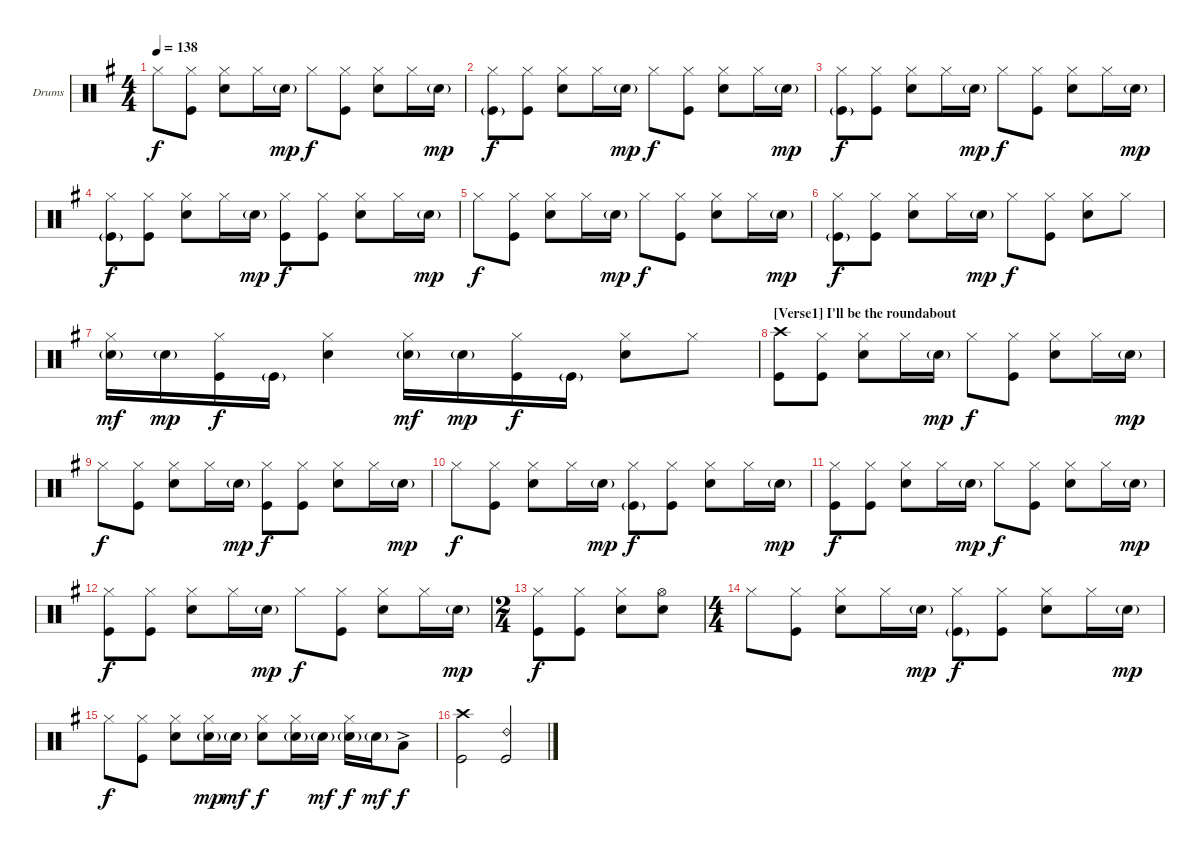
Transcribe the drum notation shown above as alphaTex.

\bracketExtendMode groupsimilarinstruments
\firstSystemTrackNameOrientation horizontal
\otherSystemsTrackNameOrientation horizontal
\track ("Drumkit" "Drums") {instrument percussion}
\staff {score}
\articulation defaults
\ts (4 4)
\tempo 138
\clef neutral
\ks eminor "Hi-Hat (closed)".8{dy f}
("Hi-Hat (closed)" "Kick (hit)").8 ("Snare (hit) 2" "Hi-Hat (closed)").8 "Hi-Hat (closed)".16 "Snare (hit) 2"{g}.16{dy mp} "Hi-Hat (closed)".8{dy f} ("Kick (hit)" "Hi-Hat (closed)").8 ("Snare (hit) 2" "Hi-Hat (closed)").8 "Hi-Hat (closed)".16 "Snare (hit) 2"{g}.16{dy mp} |
("Hi-Hat (closed)" "Kick (hit)"{g}).8{dy f} ("Hi-Hat (closed)" "Kick (hit)").8 ("Snare (hit) 2" "Hi-Hat (closed)").8 "Hi-Hat (closed)".16 "Snare (hit) 2"{g}.16{dy mp} "Hi-Hat (closed)".8{dy f} ("Kick (hit)" "Hi-Hat (closed)").8 ("Snare (hit) 2" "Hi-Hat (closed)").8 "Hi-Hat (closed)".16 "Snare (hit) 2"{g}.16{dy mp} |
("Hi-Hat (closed)" "Kick (hit)"{g}).8{dy f} ("Hi-Hat (closed)" "Kick (hit)").8 ("Snare (hit) 2" "Hi-Hat (closed)").8 "Hi-Hat (closed)".16 "Snare (hit) 2"{g}.16{dy mp} "Hi-Hat (closed)".8{dy f} ("Kick (hit)" "Hi-Hat (closed)").8 ("Snare (hit) 2" "Hi-Hat (closed)").8 "Hi-Hat (closed)".16 "Snare (hit) 2"{g}.16{dy mp} |
("Hi-Hat (closed)" "Kick (hit)"{g}).8{dy f} ("Hi-Hat (closed)" "Kick (hit)").8 ("Snare (hit) 2" "Hi-Hat (closed)").8 "Hi-Hat (closed)".16 "Snare (hit) 2"{g}.16{dy mp} ("Hi-Hat (closed)" "Kick (hit)").8{dy f} ("Kick (hit)" "Hi-Hat (closed)").8 ("Snare (hit) 2" "Hi-Hat (closed)").8 "Hi-Hat (closed)".16 "Snare (hit) 2"{g}.16{dy mp} |
"Hi-Hat (closed)".8{dy f} ("Hi-Hat (closed)" "Kick (hit)").8 ("Snare (hit) 2" "Hi-Hat (closed)").8 "Hi-Hat (closed)".16 "Snare (hit) 2"{g}.16{dy mp} "Hi-Hat (closed)".8{dy f} ("Kick (hit)" "Hi-Hat (closed)").8 ("Snare (hit) 2" "Hi-Hat (closed)").8 "Hi-Hat (closed)".16 "Snare (hit) 2"{g}.16{dy mp} |
("Hi-Hat (closed)" "Kick (hit)"{g}).8{dy f} ("Hi-Hat (closed)" "Kick (hit)").8 ("Snare (hit) 2" "Hi-Hat (closed)").8 "Hi-Hat (closed)".16 "Snare (hit) 2"{g}.16{dy mp} "Hi-Hat (closed)".8{dy f} ("Kick (hit)" "Hi-Hat (closed)").8 ("Snare (hit) 2" "Hi-Hat (closed)").8 "Hi-Hat (closed)".8 |
("Snare (hit) 2"{g} "Hi-Hat (closed)").16{dy mf} "Snare (hit) 2"{g}.16{dy mp} ("Kick (hit)" "Hi-Hat (closed)").16{dy f} "Kick (hit)"{g}.16 ("Snare (hit) 2" "Hi-Hat (closed)").4 ("Snare (hit) 2"{g} "Hi-Hat (closed)").16{dy mf} "Snare (hit) 2"{g}.16{dy mp} ("Kick (hit)" "Hi-Hat (closed)").16{dy f} "Kick (hit)"{g}.16 ("Snare (hit) 2" "Hi-Hat (closed)").8 "Hi-Hat (closed)".8 |
\section ("" "[Verse1] I'll be the roundabout")
("Kick (hit)" "Crash high (hit)").8 ("Hi-Hat (closed)" "Kick (hit)").8 ("Snare (hit) 2" "Hi-Hat (closed)").8 "Hi-Hat (closed)".16 "Snare (hit) 2"{g}.16{dy mp} "Hi-Hat (closed)".8{dy f} ("Kick (hit)" "Hi-Hat (closed)").8 ("Snare (hit) 2" "Hi-Hat (closed)").8 "Hi-Hat (closed)".16 "Snare (hit) 2"{g}.16{dy mp} |
"Hi-Hat (closed)".8{dy f} ("Hi-Hat (closed)" "Kick (hit)").8 ("Snare (hit) 2" "Hi-Hat (closed)").8 "Hi-Hat (closed)".16 "Snare (hit) 2"{g}.16{dy mp} ("Hi-Hat (closed)" "Kick (hit)").8{dy f} ("Kick (hit)" "Hi-Hat (closed)").8 ("Snare (hit) 2" "Hi-Hat (closed)").8 "Hi-Hat (closed)".16 "Snare (hit) 2"{g}.16{dy mp} |
"Hi-Hat (closed)".8{dy f} ("Hi-Hat (closed)" "Kick (hit)").8 ("Snare (hit) 2" "Hi-Hat (closed)").8 "Hi-Hat (closed)".16 "Snare (hit) 2"{g}.16{dy mp} ("Hi-Hat (closed)" "Kick (hit)"{g}).8{dy f} ("Kick (hit)" "Hi-Hat (closed)").8 ("Snare (hit) 2" "Hi-Hat (closed)").8 "Hi-Hat (closed)".16 "Snare (hit) 2"{g}.16{dy mp} |
("Hi-Hat (closed)" "Kick (hit)").8{dy f} ("Hi-Hat (closed)" "Kick (hit)").8 ("Snare (hit) 2" "Hi-Hat (closed)").8 "Hi-Hat (closed)".16 "Snare (hit) 2"{g}.16{dy mp} "Hi-Hat (closed)".8{dy f} ("Kick (hit)" "Hi-Hat (closed)").8 ("Snare (hit) 2" "Hi-Hat (closed)").8 "Hi-Hat (closed)".16 "Snare (hit) 2"{g}.16{dy mp} |
("Hi-Hat (closed)" "Kick (hit)").8{dy f} ("Hi-Hat (closed)" "Kick (hit)").8 ("Snare (hit) 2" "Hi-Hat (closed)").8 "Hi-Hat (closed)".16 "Snare (hit) 2"{g}.16{dy mp} "Hi-Hat (closed)".8{dy f} ("Kick (hit)" "Hi-Hat (closed)").8 ("Snare (hit) 2" "Hi-Hat (closed)").8 "Hi-Hat (closed)".16 "Snare (hit) 2"{g}.16{dy mp} |
\ts (2 4)
("Hi-Hat (closed)" "Kick (hit)").8{dy f} ("Hi-Hat (closed)" "Kick (hit)").8 ("Snare (hit) 2" "Hi-Hat (closed)").8 ("Hi-Hat (open)" "Snare (hit) 2").8 |
\ts (4 4)
"Hi-Hat (closed)".8 ("Hi-Hat (closed)" "Kick (hit)").8 ("Snare (hit) 2" "Hi-Hat (closed)").8 "Hi-Hat (closed)".16 "Snare (hit) 2"{g}.16{dy mp} ("Hi-Hat (closed)" "Kick (hit)"{g}).8{dy f} ("Kick (hit)" "Hi-Hat (closed)").8 ("Snare (hit) 2" "Hi-Hat (closed)").8 "Hi-Hat (closed)".16 "Snare (hit) 2"{g}.16{dy mp} |
"Hi-Hat (closed)".8{dy f} ("Kick (hit)" "Hi-Hat (closed)").8 ("Snare (hit) 2" "Hi-Hat (closed)").8 ("Snare (hit) 2"{g} "Hi-Hat (closed)").16{dy mp} "Snare (hit) 2"{g}.16{dy mf} ("Snare (hit) 2" "Hi-Hat (closed)").8{dy f} ("Snare (hit) 2"{g} "Hi-Hat (closed)").16 "Snare (hit) 2"{g}.16{dy mf} ("Snare (hit) 2"{g} "Hi-Hat (closed)").16{dy f} "Snare (hit) 2"{g}.16{dy mf} "Low Tom (hit)"{ac}.8{dy f} |
("Kick (hit)" "Crash high (hit)").2 ("Kick (hit)" "Ride (bell) 2").2
